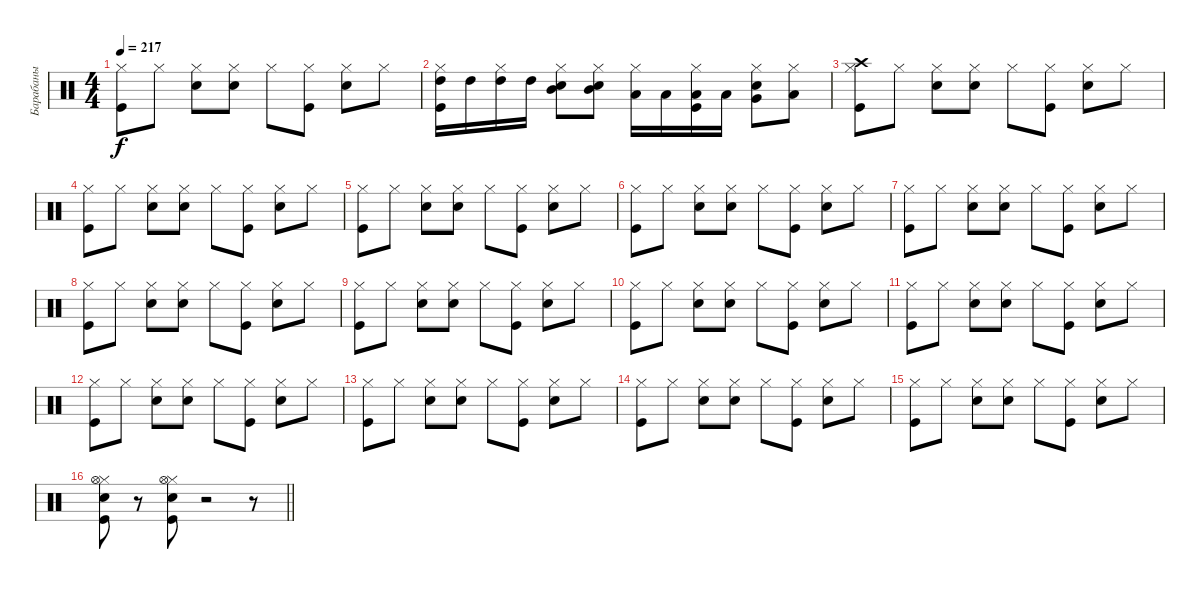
\track ("Барабаны" "Барабаны") {instrument percussion}
\staff {score}
\articulation defaults
\ts (4 4)
\tempo 217
\clef neutral
\ks c
("Kick (hit)" "Hi-Hat (closed)").8{dy f} "Hi-Hat (closed)".8 ("Snare (hit) 2" "Hi-Hat (closed)").8 ("Snare (hit) 2" "Hi-Hat (closed)").8 "Hi-Hat (closed)".8 ("Kick (hit)" "Hi-Hat (closed)").8 ("Snare (hit) 2" "Hi-Hat (closed)").8 "Hi-Hat (closed)".8 |
("Kick (hit)" "Hi-Hat (closed)" "High Tom (hit)").16 "High Tom (hit)".16 ("Hi-Hat (closed)" "High Tom (hit)").16 "High Tom (hit)".16 ("Snare (hit) 2" "Hi-Hat (closed)" "Mid Tom (hit)").8 ("Snare (hit) 2" "Hi-Hat (closed)" "Mid Tom (hit)").8 ("Hi-Hat (closed)" "Low Tom (hit)").16 "Low Tom (hit)".16 ("Kick (hit)" "Hi-Hat (closed)" "Low Tom (hit)").16 "Low Tom (hit)".16 ("Snare (hit) 2" "Hi-Hat (closed)" "Very Low Tom (hit)").8 ("Hi-Hat (closed)" "Low Floor Tom (hit)").8 |
("Kick (hit)" "Hi-Hat (closed)" "Crash high (hit)").8 "Hi-Hat (closed)".8 ("Snare (hit) 2" "Hi-Hat (closed)").8 ("Snare (hit) 2" "Hi-Hat (closed)").8 "Hi-Hat (closed)".8 ("Kick (hit)" "Hi-Hat (closed)").8 ("Snare (hit) 2" "Hi-Hat (closed)").8 "Hi-Hat (closed)".8 |
("Kick (hit)" "Hi-Hat (closed)").8 "Hi-Hat (closed)".8 ("Snare (hit) 2" "Hi-Hat (closed)").8 ("Snare (hit) 2" "Hi-Hat (closed)").8 "Hi-Hat (closed)".8 ("Kick (hit)" "Hi-Hat (closed)").8 ("Snare (hit) 2" "Hi-Hat (closed)").8 "Hi-Hat (closed)".8 |
("Kick (hit)" "Hi-Hat (closed)").8 "Hi-Hat (closed)".8 ("Snare (hit) 2" "Hi-Hat (closed)").8 ("Snare (hit) 2" "Hi-Hat (closed)").8 "Hi-Hat (closed)".8 ("Kick (hit)" "Hi-Hat (closed)").8 ("Snare (hit) 2" "Hi-Hat (closed)").8 "Hi-Hat (closed)".8 |
("Kick (hit)" "Hi-Hat (closed)").8 "Hi-Hat (closed)".8 ("Snare (hit) 2" "Hi-Hat (closed)").8 ("Snare (hit) 2" "Hi-Hat (closed)").8 "Hi-Hat (closed)".8 ("Kick (hit)" "Hi-Hat (closed)").8 ("Snare (hit) 2" "Hi-Hat (closed)").8 "Hi-Hat (closed)".8 |
("Kick (hit)" "Hi-Hat (closed)").8 "Hi-Hat (closed)".8 ("Snare (hit) 2" "Hi-Hat (closed)").8 ("Snare (hit) 2" "Hi-Hat (closed)").8 "Hi-Hat (closed)".8 ("Kick (hit)" "Hi-Hat (closed)").8 ("Snare (hit) 2" "Hi-Hat (closed)").8 "Hi-Hat (closed)".8 |
("Kick (hit)" "Hi-Hat (closed)").8 "Hi-Hat (closed)".8 ("Snare (hit) 2" "Hi-Hat (closed)").8 ("Snare (hit) 2" "Hi-Hat (closed)").8 "Hi-Hat (closed)".8 ("Kick (hit)" "Hi-Hat (closed)").8 ("Snare (hit) 2" "Hi-Hat (closed)").8 "Hi-Hat (closed)".8 |
("Kick (hit)" "Hi-Hat (closed)").8 "Hi-Hat (closed)".8 ("Snare (hit) 2" "Hi-Hat (closed)").8 ("Snare (hit) 2" "Hi-Hat (closed)").8 "Hi-Hat (closed)".8 ("Kick (hit)" "Hi-Hat (closed)").8 ("Snare (hit) 2" "Hi-Hat (closed)").8 "Hi-Hat (closed)".8 |
("Kick (hit)" "Hi-Hat (closed)").8 "Hi-Hat (closed)".8 ("Snare (hit) 2" "Hi-Hat (closed)").8 ("Snare (hit) 2" "Hi-Hat (closed)").8 "Hi-Hat (closed)".8 ("Kick (hit)" "Hi-Hat (closed)").8 ("Snare (hit) 2" "Hi-Hat (closed)").8 "Hi-Hat (closed)".8 |
("Kick (hit)" "Hi-Hat (closed)").8 "Hi-Hat (closed)".8 ("Snare (hit) 2" "Hi-Hat (closed)").8 ("Snare (hit) 2" "Hi-Hat (closed)").8 "Hi-Hat (closed)".8 ("Kick (hit)" "Hi-Hat (closed)").8 ("Snare (hit) 2" "Hi-Hat (closed)").8 "Hi-Hat (closed)".8 |
("Kick (hit)" "Hi-Hat (closed)").8 "Hi-Hat (closed)".8 ("Snare (hit) 2" "Hi-Hat (closed)").8 ("Snare (hit) 2" "Hi-Hat (closed)").8 "Hi-Hat (closed)".8 ("Kick (hit)" "Hi-Hat (closed)").8 ("Snare (hit) 2" "Hi-Hat (closed)").8 "Hi-Hat (closed)".8 |
("Kick (hit)" "Hi-Hat (closed)").8 "Hi-Hat (closed)".8 ("Snare (hit) 2" "Hi-Hat (closed)").8 ("Snare (hit) 2" "Hi-Hat (closed)").8 "Hi-Hat (closed)".8 ("Kick (hit)" "Hi-Hat (closed)").8 ("Snare (hit) 2" "Hi-Hat (closed)").8 "Hi-Hat (closed)".8 |
("Kick (hit)" "Hi-Hat (closed)").8 "Hi-Hat (closed)".8 ("Snare (hit) 2" "Hi-Hat (closed)").8 ("Snare (hit) 2" "Hi-Hat (closed)").8 "Hi-Hat (closed)".8 ("Kick (hit)" "Hi-Hat (closed)").8 ("Snare (hit) 2" "Hi-Hat (closed)").8 "Hi-Hat (closed)".8 |
("Kick (hit)" "Hi-Hat (closed)").8 "Hi-Hat (closed)".8 ("Snare (hit) 2" "Hi-Hat (closed)").8 ("Snare (hit) 2" "Hi-Hat (closed)").8 "Hi-Hat (closed)".8 ("Kick (hit)" "Hi-Hat (closed)").8 ("Snare (hit) 2" "Hi-Hat (closed)").8 "Hi-Hat (closed)".8 |
\barLineRight lightlight
("Kick (hit)" "Snare (hit) 2" "Hi-Hat (closed)" "Hi-Hat (open)").8 r.8 ("Kick (hit)" "Snare (hit) 2" "Hi-Hat (closed)" "Hi-Hat (open)").8 r.2 r.8
